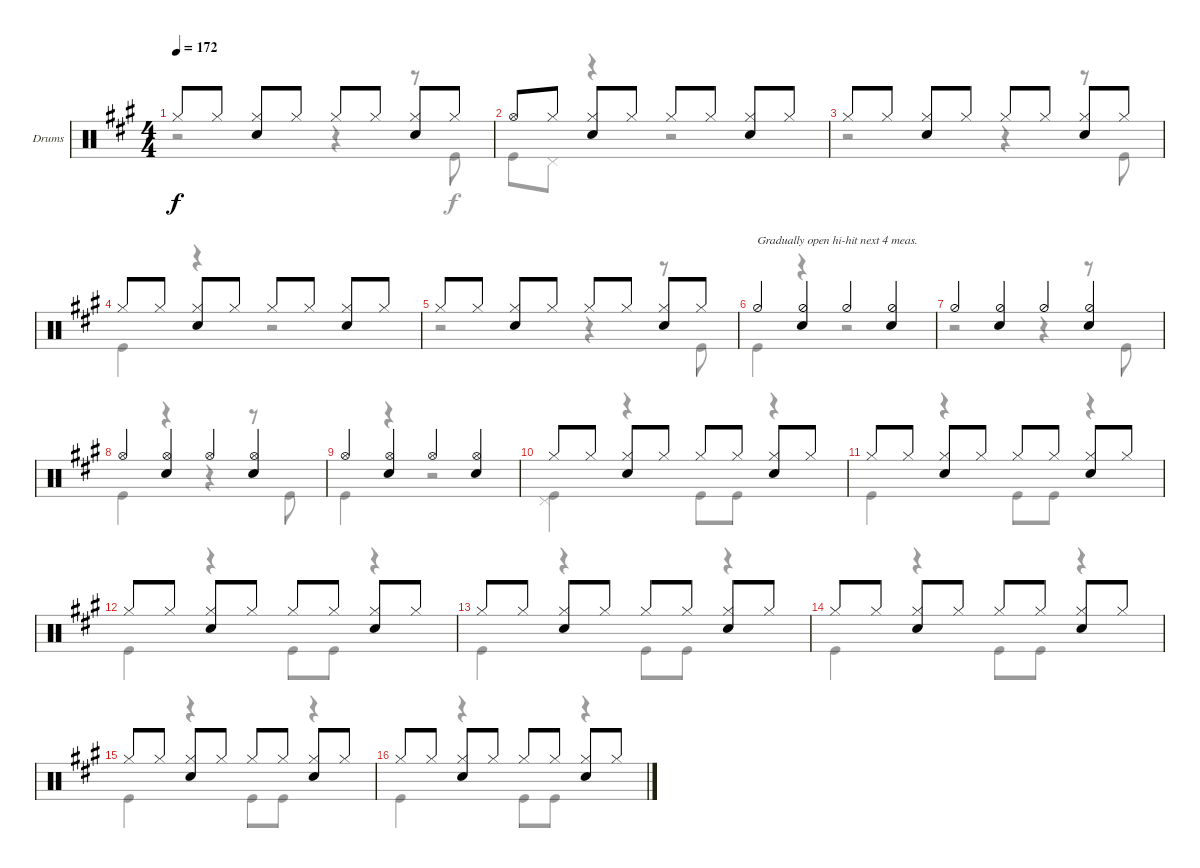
\defaultSystemsLayout 4
\bracketExtendMode groupsimilarinstruments
\firstSystemTrackNameOrientation horizontal
\otherSystemsTrackNameOrientation horizontal
\track ("Taylor Hawkins" "Drums") {instrument percussion}
\staff {score}
\articulation defaults
\voice
\ts (4 4)
\tempo 172
\clef neutral
\scale
0.333333
\ks a "Hi-Hat (closed)".8{dy f} "Hi-Hat (closed)".8
("Hi-Hat (closed)" "Snare (hit) 2").8 "Hi-Hat (closed)".8 "Hi-Hat (closed)".8 "Hi-Hat (closed)".8 ("Hi-Hat (closed)" "Snare (hit) 2").8 "Hi-Hat (closed)".8 |
\scale
0.333333 "Hi-Hat (open)".8 "Hi-Hat (closed)".8 ("Hi-Hat (closed)" "Snare (hit) 2").8 "Hi-Hat (closed)".8 "Hi-Hat (closed)".8 "Hi-Hat (closed)".8 ("Hi-Hat (closed)" "Snare (hit) 2").8 "Hi-Hat (closed)".8 |
\scale
0.333333 "Hi-Hat (closed)".8 "Hi-Hat (closed)".8 ("Hi-Hat (closed)" "Snare (hit) 2").8 "Hi-Hat (closed)".8 "Hi-Hat (closed)".8 "Hi-Hat (closed)".8 ("Hi-Hat (closed)" "Snare (hit) 2").8 "Hi-Hat (closed)".8 |
\scale
0.333333 "Hi-Hat (closed)".8 "Hi-Hat (closed)".8 ("Hi-Hat (closed)" "Snare (hit) 2").8 "Hi-Hat (closed)".8 "Hi-Hat (closed)".8 "Hi-Hat (closed)".8 ("Hi-Hat (closed)" "Snare (hit) 2").8 "Hi-Hat (closed)".8 |
\scale
0.333333 "Hi-Hat (closed)".8 "Hi-Hat (closed)".8 ("Hi-Hat (closed)" "Snare (hit) 2").8 "Hi-Hat (closed)".8 "Hi-Hat (closed)".8 "Hi-Hat (closed)".8 ("Hi-Hat (closed)" "Snare (hit) 2").8 "Hi-Hat (closed)".8 |
\scale
0.333333 "Hi-Hat (half)".4{txt "Gradually open hi-hit next 4 meas."} ("Hi-Hat (half)" "Snare (hit) 2").4 "Hi-Hat (half)".4 ("Hi-Hat (half)" "Snare (hit) 2").4 |
\scale
0.322034 "Hi-Hat (half)".4 ("Hi-Hat (half)" "Snare (hit) 2").4 "Hi-Hat (half)".4 ("Hi-Hat (half)" "Snare (hit) 2").4 |
\scale
0.322034 "Hi-Hat (open)".4 ("Hi-Hat (open)" "Snare (hit) 2").4 "Hi-Hat (open)".4 ("Hi-Hat (open)" "Snare (hit) 2").4 |
\scale
0.355932 "Hi-Hat (open)".4 ("Hi-Hat (open)" "Snare (hit) 2").4 "Hi-Hat (open)".4 ("Hi-Hat (open)" "Snare (hit) 2").4 |
"Hi-Hat (closed)".8 "Hi-Hat (closed)".8 ("Hi-Hat (closed)" "Snare (hit) 2").8 "Hi-Hat (closed)".8 "Hi-Hat (closed)".8 "Hi-Hat (closed)".8 ("Hi-Hat (closed)" "Snare (hit) 2").8 "Hi-Hat (closed)".8 |
"Hi-Hat (closed)".8 "Hi-Hat (closed)".8 ("Hi-Hat (closed)" "Snare (hit) 2").8 "Hi-Hat (closed)".8 "Hi-Hat (closed)".8 "Hi-Hat (closed)".8 ("Hi-Hat (closed)" "Snare (hit) 2").8 "Hi-Hat (closed)".8 |
"Hi-Hat (closed)".8 "Hi-Hat (closed)".8 ("Hi-Hat (closed)" "Snare (hit) 2").8 "Hi-Hat (closed)".8 "Hi-Hat (closed)".8 "Hi-Hat (closed)".8 ("Hi-Hat (closed)" "Snare (hit) 2").8 "Hi-Hat (closed)".8 |
"Hi-Hat (closed)".8 "Hi-Hat (closed)".8 ("Hi-Hat (closed)" "Snare (hit) 2").8 "Hi-Hat (closed)".8 "Hi-Hat (closed)".8 "Hi-Hat (closed)".8 ("Hi-Hat (closed)" "Snare (hit) 2").8 "Hi-Hat (closed)".8 |
"Hi-Hat (closed)".8 "Hi-Hat (closed)".8 ("Hi-Hat (closed)" "Snare (hit) 2").8 "Hi-Hat (closed)".8 "Hi-Hat (closed)".8 "Hi-Hat (closed)".8 ("Hi-Hat (closed)" "Snare (hit) 2").8 "Hi-Hat (closed)".8 |
"Hi-Hat (closed)".8 "Hi-Hat (closed)".8 ("Hi-Hat (closed)" "Snare (hit) 2").8 "Hi-Hat (closed)".8 "Hi-Hat (closed)".8 "Hi-Hat (closed)".8 ("Hi-Hat (closed)" "Snare (hit) 2").8 "Hi-Hat (closed)".8 |
"Hi-Hat (closed)".8 "Hi-Hat (closed)".8 ("Hi-Hat (closed)" "Snare (hit) 2").8 "Hi-Hat (closed)".8 "Hi-Hat (closed)".8 "Hi-Hat (closed)".8 ("Hi-Hat (closed)" "Snare (hit) 2").8 "Hi-Hat (closed)".8
\voice
\clef neutral
\ottava regular
\simile none
\scale
0.333333
\ks a
r.2{dy f} r.4 r.8 "Kick (hit)".8 |
\scale
0.333333 "Kick (hit)".8 "Pedal Hi-Hat (hit)".8 r.4 r.2 |
\scale
0.333333 r.2 r.4 r.8 "Kick (hit)".8 |
\scale
0.333333 "Kick (hit)".4 r.4 r.2 |
\scale
0.333333 r.2 r.4 r.8 "Kick (hit)".8 |
\scale
0.333333 "Kick (hit)".4 r.4 r.2 |
\scale
0.322034 r.2 r.4 r.8 "Kick (hit)".8 |
\scale
0.322034 "Kick (hit)".4 r.4 r.4 r.8 "Kick (hit)".8 |
\scale
0.355932 "Kick (hit)".4 r.4 r.2 |
("Kick (hit)" "Pedal Hi-Hat (hit)").4 r.4 "Kick (hit)".8 "Kick (hit)".8 r.4 |
"Kick (hit)".4 r.4 "Kick (hit)".8 "Kick (hit)".8 r.4 |
"Kick (hit)".4 r.4 "Kick (hit)".8 "Kick (hit)".8 r.4 |
"Kick (hit)".4 r.4 "Kick (hit)".8 "Kick (hit)".8 r.4 |
"Kick (hit)".4 r.4 "Kick (hit)".8 "Kick (hit)".8 r.4 |
"Kick (hit)".4 r.4 "Kick (hit)".8 "Kick (hit)".8 r.4 |
"Kick (hit)".4 r.4 "Kick (hit)".8 "Kick (hit)".8 r.4
